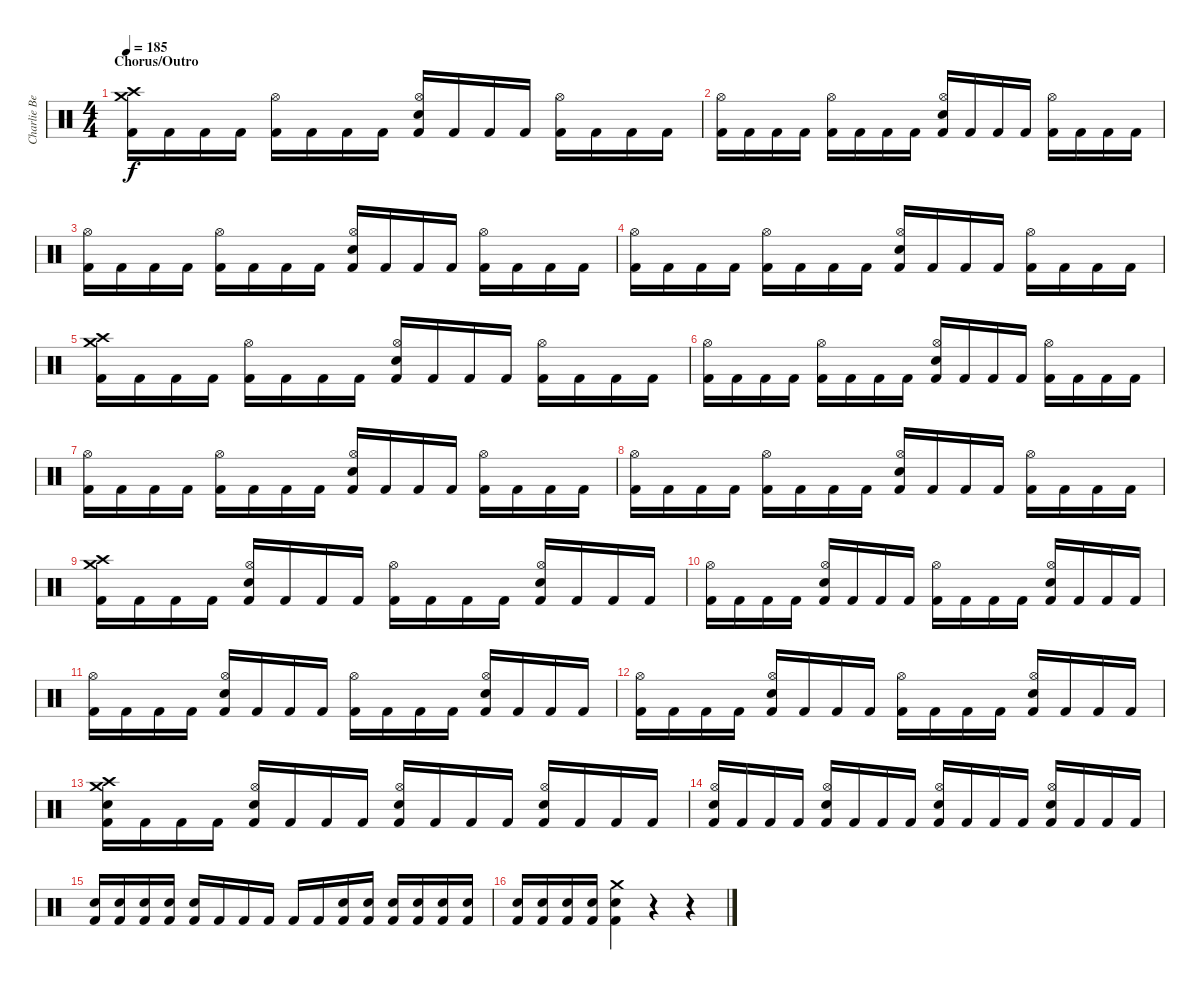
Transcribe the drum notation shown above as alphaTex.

\track ("Charlie Benante" "Charlie Be") {instrument percussion}
\staff {score}
\articulation defaults
\ts (4 4)
\section ("" "Chorus/Outro")
\tempo 185
\clef neutral
\ks c
("Crash high (hit)" "Crash medium (hit)" "Kick (hit) 2").16{dy f} "Kick (hit) 2".16 "Kick (hit) 2".16 "Kick (hit) 2".16 ("Hi-Hat (open)" "Kick (hit) 2").16 "Kick (hit) 2".16 "Kick (hit) 2".16 "Kick (hit) 2".16 ("Hi-Hat (open)" "Snare (hit) 2" "Kick (hit) 2").16 "Kick (hit) 2".16 "Kick (hit) 2".16 "Kick (hit) 2".16 ("Hi-Hat (open)" "Kick (hit) 2").16 "Kick (hit) 2".16 "Kick (hit) 2".16 "Kick (hit) 2".16 |
("Hi-Hat (open)" "Kick (hit) 2").16 "Kick (hit) 2".16 "Kick (hit) 2".16 "Kick (hit) 2".16 ("Hi-Hat (open)" "Kick (hit) 2").16 "Kick (hit) 2".16 "Kick (hit) 2".16 "Kick (hit) 2".16 ("Hi-Hat (open)" "Snare (hit) 2" "Kick (hit) 2").16 "Kick (hit) 2".16 "Kick (hit) 2".16 "Kick (hit) 2".16 ("Hi-Hat (open)" "Kick (hit) 2").16 "Kick (hit) 2".16 "Kick (hit) 2".16 "Kick (hit) 2".16 |
("Hi-Hat (open)" "Kick (hit) 2").16 "Kick (hit) 2".16 "Kick (hit) 2".16 "Kick (hit) 2".16 ("Hi-Hat (open)" "Kick (hit) 2").16 "Kick (hit) 2".16 "Kick (hit) 2".16 "Kick (hit) 2".16 ("Hi-Hat (open)" "Snare (hit) 2" "Kick (hit) 2").16 "Kick (hit) 2".16 "Kick (hit) 2".16 "Kick (hit) 2".16 ("Hi-Hat (open)" "Kick (hit) 2").16 "Kick (hit) 2".16 "Kick (hit) 2".16 "Kick (hit) 2".16 |
("Hi-Hat (open)" "Kick (hit) 2").16 "Kick (hit) 2".16 "Kick (hit) 2".16 "Kick (hit) 2".16 ("Hi-Hat (open)" "Kick (hit) 2").16 "Kick (hit) 2".16 "Kick (hit) 2".16 "Kick (hit) 2".16 ("Hi-Hat (open)" "Snare (hit) 2" "Kick (hit) 2").16 "Kick (hit) 2".16 "Kick (hit) 2".16 "Kick (hit) 2".16 ("Hi-Hat (open)" "Kick (hit) 2").16 "Kick (hit) 2".16 "Kick (hit) 2".16 "Kick (hit) 2".16 |
("Crash high (hit)" "Crash medium (hit)" "Kick (hit) 2").16 "Kick (hit) 2".16 "Kick (hit) 2".16 "Kick (hit) 2".16 ("Hi-Hat (open)" "Kick (hit) 2").16 "Kick (hit) 2".16 "Kick (hit) 2".16 "Kick (hit) 2".16 ("Hi-Hat (open)" "Snare (hit) 2" "Kick (hit) 2").16 "Kick (hit) 2".16 "Kick (hit) 2".16 "Kick (hit) 2".16 ("Hi-Hat (open)" "Kick (hit) 2").16 "Kick (hit) 2".16 "Kick (hit) 2".16 "Kick (hit) 2".16 |
("Hi-Hat (open)" "Kick (hit) 2").16 "Kick (hit) 2".16 "Kick (hit) 2".16 "Kick (hit) 2".16 ("Hi-Hat (open)" "Kick (hit) 2").16 "Kick (hit) 2".16 "Kick (hit) 2".16 "Kick (hit) 2".16 ("Hi-Hat (open)" "Snare (hit) 2" "Kick (hit) 2").16 "Kick (hit) 2".16 "Kick (hit) 2".16 "Kick (hit) 2".16 ("Hi-Hat (open)" "Kick (hit) 2").16 "Kick (hit) 2".16 "Kick (hit) 2".16 "Kick (hit) 2".16 |
("Hi-Hat (open)" "Kick (hit) 2").16 "Kick (hit) 2".16 "Kick (hit) 2".16 "Kick (hit) 2".16 ("Hi-Hat (open)" "Kick (hit) 2").16 "Kick (hit) 2".16 "Kick (hit) 2".16 "Kick (hit) 2".16 ("Hi-Hat (open)" "Snare (hit) 2" "Kick (hit) 2").16 "Kick (hit) 2".16 "Kick (hit) 2".16 "Kick (hit) 2".16 ("Hi-Hat (open)" "Kick (hit) 2").16 "Kick (hit) 2".16 "Kick (hit) 2".16 "Kick (hit) 2".16 |
("Hi-Hat (open)" "Kick (hit) 2").16 "Kick (hit) 2".16 "Kick (hit) 2".16 "Kick (hit) 2".16 ("Hi-Hat (open)" "Kick (hit) 2").16 "Kick (hit) 2".16 "Kick (hit) 2".16 "Kick (hit) 2".16 ("Hi-Hat (open)" "Snare (hit) 2" "Kick (hit) 2").16 "Kick (hit) 2".16 "Kick (hit) 2".16 "Kick (hit) 2".16 ("Hi-Hat (open)" "Kick (hit) 2").16 "Kick (hit) 2".16 "Kick (hit) 2".16 "Kick (hit) 2".16 |
("Crash high (hit)" "Crash medium (hit)" "Kick (hit) 2").16 "Kick (hit) 2".16 "Kick (hit) 2".16 "Kick (hit) 2".16 ("Hi-Hat (open)" "Snare (hit) 2" "Kick (hit) 2").16 "Kick (hit) 2".16 "Kick (hit) 2".16 "Kick (hit) 2".16 ("Hi-Hat (open)" "Kick (hit) 2").16 "Kick (hit) 2".16 "Kick (hit) 2".16 "Kick (hit) 2".16 ("Hi-Hat (open)" "Snare (hit) 2" "Kick (hit) 2").16 "Kick (hit) 2".16 "Kick (hit) 2".16 "Kick (hit) 2".16 |
("Hi-Hat (open)" "Kick (hit) 2").16 "Kick (hit) 2".16 "Kick (hit) 2".16 "Kick (hit) 2".16 ("Hi-Hat (open)" "Snare (hit) 2" "Kick (hit) 2").16 "Kick (hit) 2".16 "Kick (hit) 2".16 "Kick (hit) 2".16 ("Hi-Hat (open)" "Kick (hit) 2").16 "Kick (hit) 2".16 "Kick (hit) 2".16 "Kick (hit) 2".16 ("Hi-Hat (open)" "Snare (hit) 2" "Kick (hit) 2").16 "Kick (hit) 2".16 "Kick (hit) 2".16 "Kick (hit) 2".16 |
("Hi-Hat (open)" "Kick (hit) 2").16 "Kick (hit) 2".16 "Kick (hit) 2".16 "Kick (hit) 2".16 ("Hi-Hat (open)" "Snare (hit) 2" "Kick (hit) 2").16 "Kick (hit) 2".16 "Kick (hit) 2".16 "Kick (hit) 2".16 ("Hi-Hat (open)" "Kick (hit) 2").16 "Kick (hit) 2".16 "Kick (hit) 2".16 "Kick (hit) 2".16 ("Hi-Hat (open)" "Snare (hit) 2" "Kick (hit) 2").16 "Kick (hit) 2".16 "Kick (hit) 2".16 "Kick (hit) 2".16 |
("Hi-Hat (open)" "Kick (hit) 2").16 "Kick (hit) 2".16 "Kick (hit) 2".16 "Kick (hit) 2".16 ("Hi-Hat (open)" "Snare (hit) 2" "Kick (hit) 2").16 "Kick (hit) 2".16 "Kick (hit) 2".16 "Kick (hit) 2".16 ("Hi-Hat (open)" "Kick (hit) 2").16 "Kick (hit) 2".16 "Kick (hit) 2".16 "Kick (hit) 2".16 ("Hi-Hat (open)" "Snare (hit) 2" "Kick (hit) 2").16 "Kick (hit) 2".16 "Kick (hit) 2".16 "Kick (hit) 2".16 |
("Crash high (hit)" "Crash medium (hit)" "Snare (hit) 2" "Kick (hit) 2").16 "Kick (hit) 2".16 "Kick (hit) 2".16 "Kick (hit) 2".16 ("Hi-Hat (open)" "Snare (hit) 2" "Kick (hit) 2").16 "Kick (hit) 2".16 "Kick (hit) 2".16 "Kick (hit) 2".16 ("Hi-Hat (open)" "Snare (hit) 2" "Kick (hit) 2").16 "Kick (hit) 2".16 "Kick (hit) 2".16 "Kick (hit) 2".16 ("Hi-Hat (open)" "Snare (hit) 2" "Kick (hit) 2").16 "Kick (hit) 2".16 "Kick (hit) 2".16 "Kick (hit) 2".16 |
("Hi-Hat (open)" "Snare (hit) 2" "Kick (hit) 2").16 "Kick (hit) 2".16 "Kick (hit) 2".16 "Kick (hit) 2".16 ("Hi-Hat (open)" "Snare (hit) 2" "Kick (hit) 2").16 "Kick (hit) 2".16 "Kick (hit) 2".16 "Kick (hit) 2".16 ("Hi-Hat (open)" "Snare (hit) 2" "Kick (hit) 2").16 "Kick (hit) 2".16 "Kick (hit) 2".16 "Kick (hit) 2".16 ("Hi-Hat (open)" "Snare (hit) 2" "Kick (hit) 2").16 "Kick (hit) 2".16 "Kick (hit) 2".16 "Kick (hit) 2".16 |
("Snare (hit) 2" "Kick (hit) 2").16 ("Snare (hit) 2" "Kick (hit) 2").16 ("Snare (hit) 2" "Kick (hit) 2").16 ("Snare (hit) 2" "Kick (hit) 2").16 ("Snare (hit) 2" "Kick (hit) 2").16 "Kick (hit) 2".16 "Kick (hit) 2".16 "Kick (hit) 2".16 "Kick (hit) 2".16 "Kick (hit) 2".16 ("Snare (hit) 2" "Kick (hit) 2").16 ("Snare (hit) 2" "Kick (hit) 2").16 ("Snare (hit) 2" "Kick (hit) 2").16 ("Snare (hit) 2" "Kick (hit) 2").16 ("Snare (hit) 2" "Kick (hit) 2").16 ("Snare (hit) 2" "Kick (hit) 2").16 |
("Snare (hit) 2" "Kick (hit) 2").16 ("Snare (hit) 2" "Kick (hit) 2").16 ("Snare (hit) 2" "Kick (hit) 2").16 ("Snare (hit) 2" "Kick (hit) 2").16 ("Crash medium (hit)" "Snare (hit) 2" "Kick (hit) 2").4 r.4 r.4
